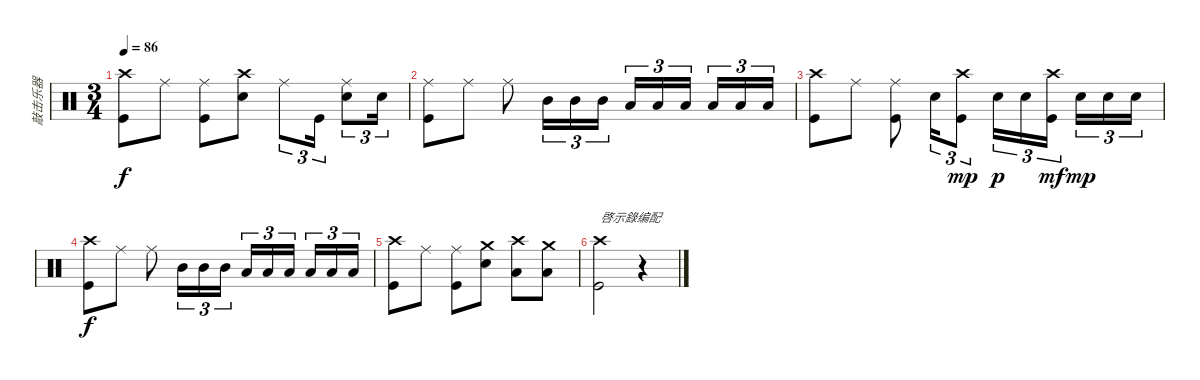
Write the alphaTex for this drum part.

\track ("敲击乐器" "敲击乐器") {instrument percussion}
\staff {score}
\articulation defaults
\ts (3 4)
\tempo 86
\clef neutral
\ks c
("Crash high (hit)" "Kick (hit)").8{dy f} "Ride (middle)".8 ("Ride (middle)" "Kick (hit)").8 ("Crash high (hit)" "Snare (hit) 2").8 "Ride (middle)".8{tu (3 2)} "Kick (hit)".16{tu (3 2)} ("Ride (middle)" "Snare (hit) 2").8{tu (3 2)} "Snare (hit) 2".16{tu (3 2)} |
("Ride (middle)" "Kick (hit)").8 "Ride (middle)".8 "Ride (middle)".8 "Mid Tom (hit)".16{tu (3 2)} "Mid Tom (hit)".16{tu (3 2)} "Mid Tom (hit)".16{tu (3 2)} "Low Tom (hit)".16{tu (3 2)} "Low Tom (hit)".16{tu (3 2)} "Low Tom (hit)".16{tu (3 2) beam splitsecondary} "Low Floor Tom (hit)".16{tu (3 2)} "Low Floor Tom (hit)".16{tu (3 2)} "Low Floor Tom (hit)".16{tu (3 2)} |
("Crash high (hit)" "Kick (hit)").8 "Ride (middle)".8 ("Ride (middle)" "Kick (hit)").8 "Snare (hit) 2".16{tu (3 2)} ("Crash high (hit)" "Kick (hit)").8{tu (3 2) dy mp} "Snare (hit) 2".16{tu (3 2) dy p} "Snare (hit) 2".16{tu (3 2)} ("Crash high (hit)" "Kick (hit)").16{tu (3 2) dy mf beam splitsecondary} "Snare (hit) 2".16{tu (3 2) dy mp} "Snare (hit) 2".16{tu (3 2)} "Snare (hit) 2".16{tu (3 2)} |
("Crash high (hit)" "Kick (hit)").8{dy f} "Ride (middle)".8 "Ride (middle)".8 "Mid Tom (hit)".16{tu (3 2)} "Mid Tom (hit)".16{tu (3 2)} "Mid Tom (hit)".16{tu (3 2)} "Low Tom (hit)".16{tu (3 2)} "Low Tom (hit)".16{tu (3 2)} "Low Tom (hit)".16{tu (3 2) beam splitsecondary} "Low Floor Tom (hit)".16{tu (3 2)} "Low Floor Tom (hit)".16{tu (3 2)} "Low Floor Tom (hit)".16{tu (3 2)} |
("Crash high (hit)" "Kick (hit)").8 "Ride (middle)".8 ("Ride (middle)" "Kick (hit)").8 ("Crash medium (hit)" "Snare (hit) 2").8 ("Crash high (hit)" "Low Tom (hit)").8 ("Crash medium (hit)" "Low Floor Tom (hit)").8 |
("Crash high (hit)" "Kick (hit)").2{txt "啓示錄编配"} r.4
